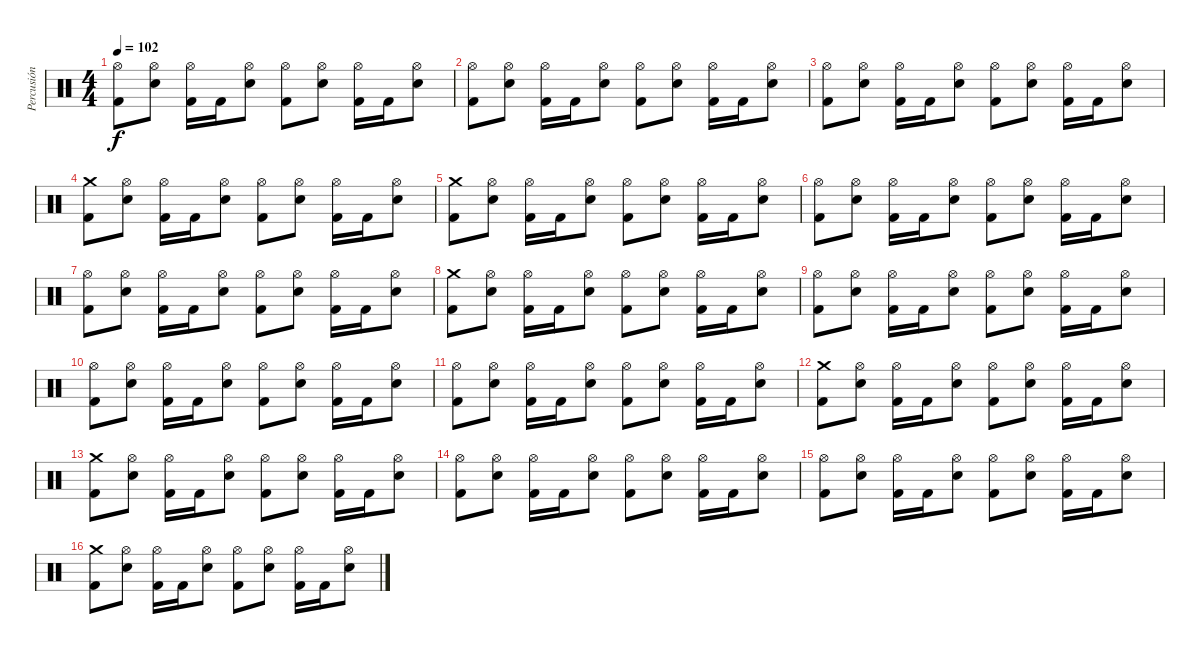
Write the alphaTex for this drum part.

\track ("Percusión" "Percusión") {instrument percussion}
\staff {score}
\articulation defaults
\ts (4 4)
\tempo 102
\clef neutral
\ks c
("Kick (hit) 2" "Hi-Hat (open)").8{dy f} ("Electric Snare (hit)" "Hi-Hat (open)").8 ("Kick (hit) 2" "Hi-Hat (open)").16 "Kick (hit) 2".16 ("Electric Snare (hit)" "Hi-Hat (open)").8 ("Kick (hit) 2" "Hi-Hat (open)").8 ("Electric Snare (hit)" "Hi-Hat (open)").8 ("Kick (hit) 2" "Hi-Hat (open)").16 "Kick (hit) 2".16 ("Electric Snare (hit)" "Hi-Hat (open)").8 |
("Kick (hit) 2" "Hi-Hat (open)").8 ("Electric Snare (hit)" "Hi-Hat (open)").8 ("Kick (hit) 2" "Hi-Hat (open)").16 "Kick (hit) 2".16 ("Electric Snare (hit)" "Hi-Hat (open)").8 ("Kick (hit) 2" "Hi-Hat (open)").8 ("Electric Snare (hit)" "Hi-Hat (open)").8 ("Kick (hit) 2" "Hi-Hat (open)").16 "Kick (hit) 2".16 ("Electric Snare (hit)" "Hi-Hat (open)").8 |
("Kick (hit) 2" "Hi-Hat (open)").8 ("Electric Snare (hit)" "Hi-Hat (open)").8 ("Kick (hit) 2" "Hi-Hat (open)").16 "Kick (hit) 2".16 ("Electric Snare (hit)" "Hi-Hat (open)").8 ("Kick (hit) 2" "Hi-Hat (open)").8 ("Electric Snare (hit)" "Hi-Hat (open)").8 ("Kick (hit) 2" "Hi-Hat (open)").16 "Kick (hit) 2".16 ("Electric Snare (hit)" "Hi-Hat (open)").8 |
("Kick (hit) 2" "Crash medium (hit)").8 ("Electric Snare (hit)" "Hi-Hat (open)").8 ("Kick (hit) 2" "Hi-Hat (open)").16 "Kick (hit) 2".16 ("Electric Snare (hit)" "Hi-Hat (open)").8 ("Kick (hit) 2" "Hi-Hat (open)").8 ("Electric Snare (hit)" "Hi-Hat (open)").8 ("Kick (hit) 2" "Hi-Hat (open)").16 "Kick (hit) 2".16 ("Electric Snare (hit)" "Hi-Hat (open)").8 |
("Kick (hit) 2" "Crash medium (hit)").8 ("Electric Snare (hit)" "Hi-Hat (open)").8 ("Kick (hit) 2" "Hi-Hat (open)").16 "Kick (hit) 2".16 ("Electric Snare (hit)" "Hi-Hat (open)").8 ("Kick (hit) 2" "Hi-Hat (open)").8 ("Electric Snare (hit)" "Hi-Hat (open)").8 ("Kick (hit) 2" "Hi-Hat (open)").16 "Kick (hit) 2".16 ("Electric Snare (hit)" "Hi-Hat (open)").8 |
("Kick (hit) 2" "Hi-Hat (open)").8 ("Electric Snare (hit)" "Hi-Hat (open)").8 ("Kick (hit) 2" "Hi-Hat (open)").16 "Kick (hit) 2".16 ("Electric Snare (hit)" "Hi-Hat (open)").8 ("Kick (hit) 2" "Hi-Hat (open)").8 ("Electric Snare (hit)" "Hi-Hat (open)").8 ("Kick (hit) 2" "Hi-Hat (open)").16 "Kick (hit) 2".16 ("Electric Snare (hit)" "Hi-Hat (open)").8 |
("Kick (hit) 2" "Hi-Hat (open)").8 ("Electric Snare (hit)" "Hi-Hat (open)").8 ("Kick (hit) 2" "Hi-Hat (open)").16 "Kick (hit) 2".16 ("Electric Snare (hit)" "Hi-Hat (open)").8 ("Kick (hit) 2" "Hi-Hat (open)").8 ("Electric Snare (hit)" "Hi-Hat (open)").8 ("Kick (hit) 2" "Hi-Hat (open)").16 "Kick (hit) 2".16 ("Electric Snare (hit)" "Hi-Hat (open)").8 |
("Kick (hit) 2" "Crash medium (hit)").8 ("Electric Snare (hit)" "Hi-Hat (open)").8 ("Kick (hit) 2" "Hi-Hat (open)").16 "Kick (hit) 2".16 ("Electric Snare (hit)" "Hi-Hat (open)").8 ("Kick (hit) 2" "Hi-Hat (open)").8 ("Electric Snare (hit)" "Hi-Hat (open)").8 ("Kick (hit) 2" "Hi-Hat (open)").16 "Kick (hit) 2".16 ("Electric Snare (hit)" "Hi-Hat (open)").8 |
("Kick (hit) 2" "Hi-Hat (open)").8 ("Electric Snare (hit)" "Hi-Hat (open)").8 ("Kick (hit) 2" "Hi-Hat (open)").16 "Kick (hit) 2".16 ("Electric Snare (hit)" "Hi-Hat (open)").8 ("Kick (hit) 2" "Hi-Hat (open)").8 ("Electric Snare (hit)" "Hi-Hat (open)").8 ("Kick (hit) 2" "Hi-Hat (open)").16 "Kick (hit) 2".16 ("Electric Snare (hit)" "Hi-Hat (open)").8 |
("Kick (hit) 2" "Hi-Hat (open)").8 ("Electric Snare (hit)" "Hi-Hat (open)").8 ("Kick (hit) 2" "Hi-Hat (open)").16 "Kick (hit) 2".16 ("Electric Snare (hit)" "Hi-Hat (open)").8 ("Kick (hit) 2" "Hi-Hat (open)").8 ("Electric Snare (hit)" "Hi-Hat (open)").8 ("Kick (hit) 2" "Hi-Hat (open)").16 "Kick (hit) 2".16 ("Electric Snare (hit)" "Hi-Hat (open)").8 |
("Kick (hit) 2" "Hi-Hat (open)").8 ("Electric Snare (hit)" "Hi-Hat (open)").8 ("Kick (hit) 2" "Hi-Hat (open)").16 "Kick (hit) 2".16 ("Electric Snare (hit)" "Hi-Hat (open)").8 ("Kick (hit) 2" "Hi-Hat (open)").8 ("Electric Snare (hit)" "Hi-Hat (open)").8 ("Kick (hit) 2" "Hi-Hat (open)").16 "Kick (hit) 2".16 ("Electric Snare (hit)" "Hi-Hat (open)").8 |
("Kick (hit) 2" "Crash medium (hit)").8 ("Electric Snare (hit)" "Hi-Hat (open)").8 ("Kick (hit) 2" "Hi-Hat (open)").16 "Kick (hit) 2".16 ("Electric Snare (hit)" "Hi-Hat (open)").8 ("Kick (hit) 2" "Hi-Hat (open)").8 ("Electric Snare (hit)" "Hi-Hat (open)").8 ("Kick (hit) 2" "Hi-Hat (open)").16 "Kick (hit) 2".16 ("Electric Snare (hit)" "Hi-Hat (open)").8 |
("Kick (hit) 2" "Crash medium (hit)").8 ("Electric Snare (hit)" "Hi-Hat (open)").8 ("Kick (hit) 2" "Hi-Hat (open)").16 "Kick (hit) 2".16 ("Electric Snare (hit)" "Hi-Hat (open)").8 ("Kick (hit) 2" "Hi-Hat (open)").8 ("Electric Snare (hit)" "Hi-Hat (open)").8 ("Kick (hit) 2" "Hi-Hat (open)").16 "Kick (hit) 2".16 ("Electric Snare (hit)" "Hi-Hat (open)").8 |
("Kick (hit) 2" "Hi-Hat (open)").8 ("Electric Snare (hit)" "Hi-Hat (open)").8 ("Kick (hit) 2" "Hi-Hat (open)").16 "Kick (hit) 2".16 ("Electric Snare (hit)" "Hi-Hat (open)").8 ("Kick (hit) 2" "Hi-Hat (open)").8 ("Electric Snare (hit)" "Hi-Hat (open)").8 ("Kick (hit) 2" "Hi-Hat (open)").16 "Kick (hit) 2".16 ("Electric Snare (hit)" "Hi-Hat (open)").8 |
("Kick (hit) 2" "Hi-Hat (open)").8 ("Electric Snare (hit)" "Hi-Hat (open)").8 ("Kick (hit) 2" "Hi-Hat (open)").16 "Kick (hit) 2".16 ("Electric Snare (hit)" "Hi-Hat (open)").8 ("Kick (hit) 2" "Hi-Hat (open)").8 ("Electric Snare (hit)" "Hi-Hat (open)").8 ("Kick (hit) 2" "Hi-Hat (open)").16 "Kick (hit) 2".16 ("Electric Snare (hit)" "Hi-Hat (open)").8 |
("Kick (hit) 2" "Crash medium (hit)").8 ("Electric Snare (hit)" "Hi-Hat (open)").8 ("Kick (hit) 2" "Hi-Hat (open)").16 "Kick (hit) 2".16 ("Electric Snare (hit)" "Hi-Hat (open)").8 ("Kick (hit) 2" "Hi-Hat (open)").8 ("Electric Snare (hit)" "Hi-Hat (open)").8 ("Kick (hit) 2" "Hi-Hat (open)").16 "Kick (hit) 2".16 ("Electric Snare (hit)" "Hi-Hat (open)").8
